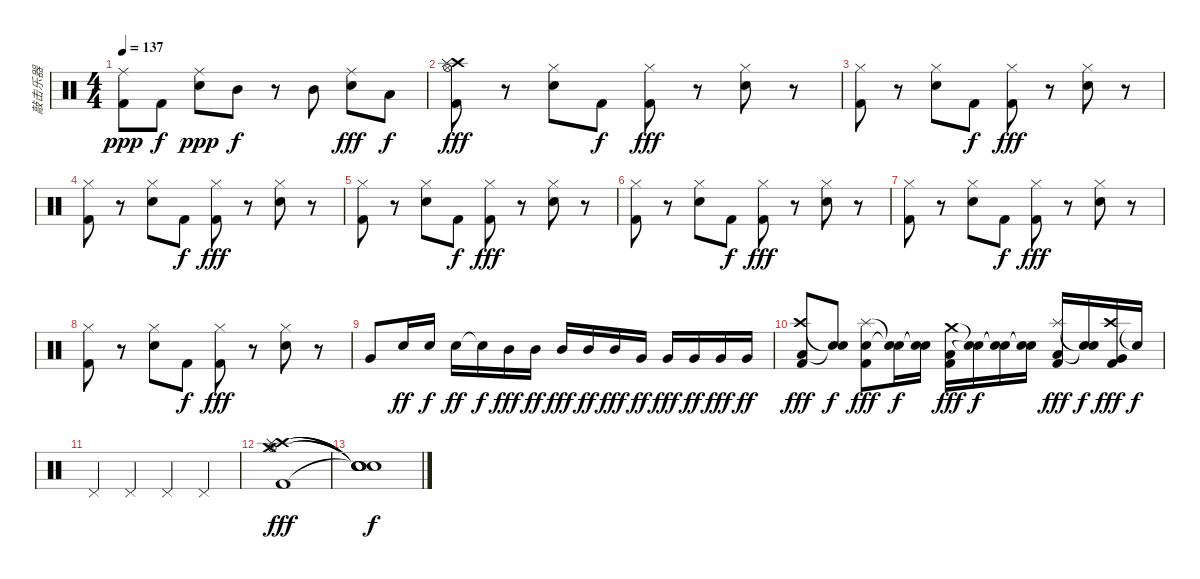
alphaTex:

\track ("敲击乐器" "敲击乐器") {instrument percussion}
\staff {score}
\articulation defaults
\ts (4 4)
\tempo 137
\clef neutral
\ks c
("Kick (hit) 2" "Ride (middle)").8{dy ppp} "Kick (hit) 2".8{dy f} ("Snare (hit) 2" "Ride (middle)").8{dy ppp} "Mid Tom (hit)".8{dy f} r.8 "Mid Tom (hit)".8 ("Snare (hit) 2" "Ride (middle)").8{dy fff} "Low Tom (hit)".8{dy f} |
("Crash high (hit)" "Splash (hit)" "Kick (hit) 2" "Hi-Hat (open)").8{dy fff} r.8 ("Snare (hit) 2" "Hi-Hat (closed)").8 "Kick (hit) 2".8{dy f} ("Kick (hit) 2" "Hi-Hat (closed)").8{dy fff} r.8 ("Snare (hit) 2" "Hi-Hat (closed)").8 r.8 |
("Kick (hit) 2" "Hi-Hat (closed)").8 r.8 ("Snare (hit) 2" "Hi-Hat (closed)").8 "Kick (hit) 2".8{dy f} ("Kick (hit) 2" "Hi-Hat (closed)").8{dy fff} r.8 ("Snare (hit) 2" "Hi-Hat (closed)").8 r.8 |
("Kick (hit) 2" "Hi-Hat (closed)").8 r.8 ("Snare (hit) 2" "Hi-Hat (closed)").8 "Kick (hit) 2".8{dy f} ("Kick (hit) 2" "Hi-Hat (closed)").8{dy fff} r.8 ("Snare (hit) 2" "Hi-Hat (closed)").8 r.8 |
("Kick (hit) 2" "Hi-Hat (closed)").8 r.8 ("Snare (hit) 2" "Hi-Hat (closed)").8 "Kick (hit) 2".8{dy f} ("Kick (hit) 2" "Hi-Hat (closed)").8{dy fff} r.8 ("Snare (hit) 2" "Hi-Hat (closed)").8 r.8 |
("Kick (hit) 2" "Hi-Hat (closed)").8 r.8 ("Snare (hit) 2" "Hi-Hat (closed)").8 "Kick (hit) 2".8{dy f} ("Kick (hit) 2" "Hi-Hat (closed)").8{dy fff} r.8 ("Snare (hit) 2" "Hi-Hat (closed)").8 r.8 |
("Kick (hit) 2" "Hi-Hat (closed)").8 r.8 ("Snare (hit) 2" "Hi-Hat (closed)").8 "Kick (hit) 2".8{dy f} ("Kick (hit) 2" "Hi-Hat (closed)").8{dy fff} r.8 ("Snare (hit) 2" "Hi-Hat (closed)").8 r.8 |
("Kick (hit) 2" "Hi-Hat (closed)").8 r.8 ("Snare (hit) 2" "Hi-Hat (closed)").8 "Kick (hit) 2".8{dy f} ("Kick (hit) 2" "Hi-Hat (closed)").8{dy fff} r.8 ("Snare (hit) 2" "Hi-Hat (closed)").8 r.8 |
"Very Low Tom (hit)".8 "Snare (hit) 2".16{dy ff} "Snare (hit) 2".16{dy f} "Snare (hit) 2".16{dy ff} "Snare (hit)"{t}.16{dy f} "Mid Tom (hit)".16{dy fff} "Mid Tom (hit)".16{dy ff} "Mid Tom (hit)".16{dy fff} "Mid Tom (hit)".16{dy ff} "Mid Tom (hit)".16{dy fff} "Very Low Tom (hit)".16{dy ff} "Very Low Tom (hit)".16{dy fff} "Very Low Tom (hit)".16{dy ff} "Very Low Tom (hit)".16{dy fff} "Very Low Tom (hit)".16{dy ff} |
("Crash high (hit)" "Low Floor Tom (hit)" "Kick (hit) 2").8{dy fff} ("Snare (hit)"{t} "Snare (hit)"{t}).8{dy f} ("Splash (hit)" "Snare (hit) 2" "Kick (hit) 2").8{dy fff} ("Snare (hit)"{t} "Snare (hit)"{t}).16{dy f} ("Snare (hit)"{t} "Snare (hit)"{t}).16 ("Crash medium (hit)" "Low Tom (hit)" "Kick (hit) 2").16{dy fff} ("Snare (hit)"{t} "Snare (hit)"{t}).16{dy f} ("Snare (hit)"{t} "Snare (hit)"{t}).16 ("Snare (hit)"{t} "Snare (hit)"{t}).16 ("Splash (hit)" "Low Floor Tom (hit)" "Kick (hit) 2").16{dy fff} ("Snare (hit)"{t} "Snare (hit)"{t}).16{dy f} ("Crash high (hit)" "Very Low Tom (hit)" "Kick (hit) 2").16{dy fff} "Snare (hit)"{t}.16{dy f} |
"Pedal Hi-Hat (hit)".4 "Pedal Hi-Hat (hit)".4 "Pedal Hi-Hat (hit)".4 "Pedal Hi-Hat (hit)".4 |
("Crash medium (hit)" "Crash high (hit)" "Splash (hit)" "Hi-Hat (open)" "Kick (hit) 2").1{dy fff} |
("Snare (hit)"{t} "Snare (hit)"{t} "Snare (hit)"{t} "Snare (hit)"{t} "Snare (hit)"{t}).1{dy f}
